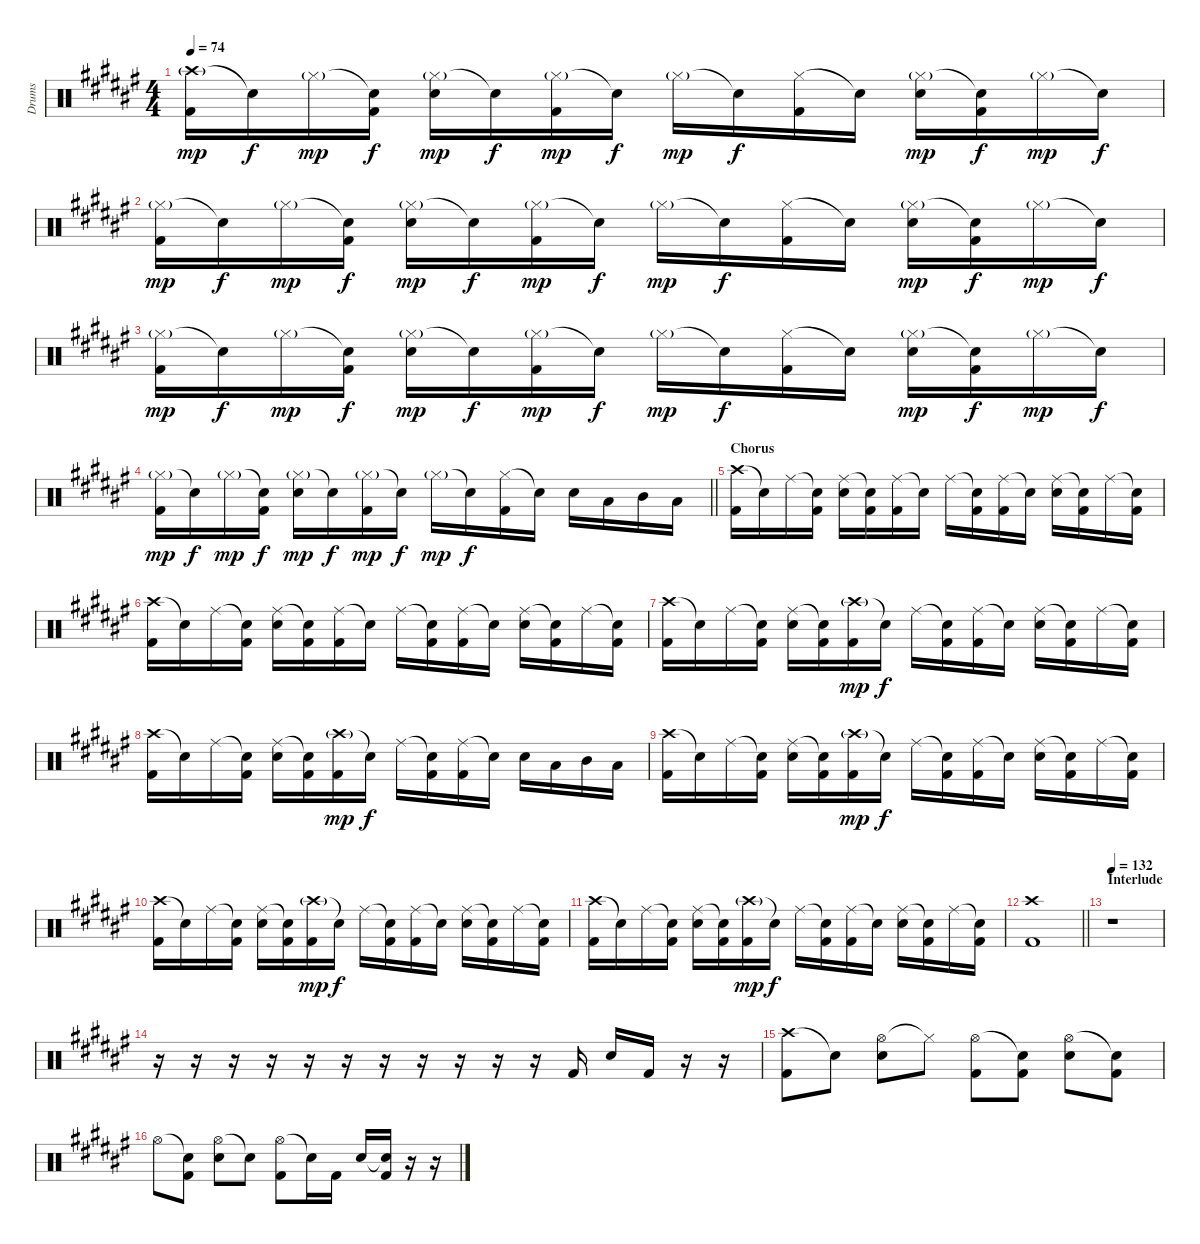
\track ("Drums" "Drums") {instrument percussion}
\staff {score}
\articulation defaults
\ts (4 4)
\tempo 74
\clef neutral
\ks f#
("Crash high (hit)"{g} "Kick (hit) 2").16{dy mp} "Snare (hit)"{t}.16{dy f} "Hi-Hat (closed)"{g}.16{dy mp} ("Snare (hit)"{t} "Kick (hit) 2").16{dy f} ("Hi-Hat (closed)"{g} "Electric Snare (hit)").16{dy mp} "Snare (hit)"{t}.16{dy f} ("Hi-Hat (closed)"{g} "Kick (hit) 2").16{dy mp} "Snare (hit)"{t}.16{dy f} "Hi-Hat (closed)"{g}.16{dy mp} "Snare (hit)"{t}.16{dy f} ("Hi-Hat (closed)" "Kick (hit) 2").16 "Snare (hit)"{t}.16 ("Hi-Hat (closed)"{g} "Electric Snare (hit)").16{dy mp} ("Snare (hit)"{t} "Kick (hit) 2").16{dy f} "Hi-Hat (closed)"{g}.16{dy mp} "Snare (hit)"{t}.16{dy f} |
("Hi-Hat (closed)"{g} "Kick (hit) 2").16{dy mp} "Snare (hit)"{t}.16{dy f} "Hi-Hat (closed)"{g}.16{dy mp} ("Snare (hit)"{t} "Kick (hit) 2").16{dy f} ("Hi-Hat (closed)"{g} "Electric Snare (hit)").16{dy mp} "Snare (hit)"{t}.16{dy f} ("Hi-Hat (closed)"{g} "Kick (hit) 2").16{dy mp} "Snare (hit)"{t}.16{dy f} "Hi-Hat (closed)"{g}.16{dy mp} "Snare (hit)"{t}.16{dy f} ("Hi-Hat (closed)" "Kick (hit) 2").16 "Snare (hit)"{t}.16 ("Hi-Hat (closed)"{g} "Electric Snare (hit)").16{dy mp} ("Snare (hit)"{t} "Kick (hit) 2").16{dy f} "Hi-Hat (closed)"{g}.16{dy mp} "Snare (hit)"{t}.16{dy f} |
("Hi-Hat (closed)"{g} "Kick (hit) 2").16{dy mp} "Snare (hit)"{t}.16{dy f} "Hi-Hat (closed)"{g}.16{dy mp} ("Snare (hit)"{t} "Kick (hit) 2").16{dy f} ("Hi-Hat (closed)"{g} "Electric Snare (hit)").16{dy mp} "Snare (hit)"{t}.16{dy f} ("Hi-Hat (closed)"{g} "Kick (hit) 2").16{dy mp} "Snare (hit)"{t}.16{dy f} "Hi-Hat (closed)"{g}.16{dy mp} "Snare (hit)"{t}.16{dy f} ("Hi-Hat (closed)" "Kick (hit) 2").16 "Snare (hit)"{t}.16 ("Hi-Hat (closed)"{g} "Electric Snare (hit)").16{dy mp} ("Snare (hit)"{t} "Kick (hit) 2").16{dy f} "Hi-Hat (closed)"{g}.16{dy mp} "Snare (hit)"{t}.16{dy f} |
\barLineRight lightlight
("Hi-Hat (closed)"{g} "Kick (hit) 2").16{dy mp} "Snare (hit)"{t}.16{dy f} "Hi-Hat (closed)"{g}.16{dy mp} ("Snare (hit)"{t} "Kick (hit) 2").16{dy f} ("Hi-Hat (closed)"{g} "Electric Snare (hit)").16{dy mp} "Snare (hit)"{t}.16{dy f} ("Hi-Hat (closed)"{g} "Kick (hit) 2").16{dy mp} "Snare (hit)"{t}.16{dy f} "Hi-Hat (closed)"{g}.16{dy mp} "Snare (hit)"{t}.16{dy f} ("Hi-Hat (closed)" "Kick (hit) 2").16 "Snare (hit)"{t}.16 "Electric Snare (hit)".16 "Low Tom (hit)".16 "Mid Tom (hit)".16 "Low Floor Tom (hit)".16 |
\section ("" "Chorus")
("Crash high (hit)" "Kick (hit) 2").16 "Snare (hit)"{t}.16 "Ride (middle)".16 ("Snare (hit)"{t} "Kick (hit) 2").16 ("Ride (middle)" "Electric Snare (hit)").16 ("Snare (hit)"{t} "Kick (hit) 2").16 ("Ride (middle)" "Kick (hit) 2").16 "Snare (hit)"{t}.16 "Ride (middle)".16 ("Snare (hit)"{t} "Kick (hit) 2").16 ("Ride (middle)" "Kick (hit) 2").16 "Snare (hit)"{t}.16 ("Ride (middle)" "Electric Snare (hit)").16 ("Snare (hit)"{t} "Kick (hit) 2").16 "Ride (middle)".16 ("Snare (hit)"{t} "Kick (hit) 2").16 |
("Crash high (hit)" "Kick (hit) 2").16 "Snare (hit)"{t}.16 "Ride (middle)".16 ("Snare (hit)"{t} "Kick (hit) 2").16 ("Ride (middle)" "Electric Snare (hit)").16 ("Snare (hit)"{t} "Kick (hit) 2").16 ("Ride (middle)" "Kick (hit) 2").16 "Snare (hit)"{t}.16 "Ride (middle)".16 ("Snare (hit)"{t} "Kick (hit) 2").16 ("Ride (middle)" "Kick (hit) 2").16 "Snare (hit)"{t}.16 ("Ride (middle)" "Electric Snare (hit)").16 ("Snare (hit)"{t} "Kick (hit) 2").16 "Ride (middle)".16 ("Snare (hit)"{t} "Kick (hit) 2").16 |
("Crash high (hit)" "Kick (hit) 2").16 "Snare (hit)"{t}.16 "Ride (middle)".16 ("Snare (hit)"{t} "Kick (hit) 2").16 ("Ride (middle)" "Electric Snare (hit)").16 ("Snare (hit)"{t} "Kick (hit) 2").16 ("Crash high (hit)"{g} "Kick (hit) 2").16{dy mp} "Snare (hit)"{t}.16{dy f} "Ride (middle)".16 ("Snare (hit)"{t} "Kick (hit) 2").16 ("Ride (middle)" "Kick (hit) 2").16 "Snare (hit)"{t}.16 ("Ride (middle)" "Electric Snare (hit)").16 ("Snare (hit)"{t} "Kick (hit) 2").16 "Ride (middle)".16 ("Snare (hit)"{t} "Kick (hit) 2").16 |
("Crash high (hit)" "Kick (hit) 2").16 "Snare (hit)"{t}.16 "Ride (middle)".16 ("Snare (hit)"{t} "Kick (hit) 2").16 ("Ride (middle)" "Electric Snare (hit)").16 ("Snare (hit)"{t} "Kick (hit) 2").16 ("Crash high (hit)"{g} "Kick (hit) 2").16{dy mp} "Snare (hit)"{t}.16{dy f} "Ride (middle)".16 ("Snare (hit)"{t} "Kick (hit) 2").16 ("Ride (middle)" "Kick (hit) 2").16 "Snare (hit)"{t}.16 "Electric Snare (hit)".16 "Low Tom (hit)".16 "Mid Tom (hit)".16 "Low Floor Tom (hit)".16 |
("Crash high (hit)" "Kick (hit) 2").16 "Snare (hit)"{t}.16 "Ride (middle)".16 ("Snare (hit)"{t} "Kick (hit) 2").16 ("Ride (middle)" "Electric Snare (hit)").16 ("Snare (hit)"{t} "Kick (hit) 2").16 ("Crash high (hit)"{g} "Kick (hit) 2").16{dy mp} "Snare (hit)"{t}.16{dy f} "Ride (middle)".16 ("Snare (hit)"{t} "Kick (hit) 2").16 ("Ride (middle)" "Kick (hit) 2").16 "Snare (hit)"{t}.16 ("Ride (middle)" "Electric Snare (hit)").16 ("Snare (hit)"{t} "Kick (hit) 2").16 "Ride (middle)".16 ("Snare (hit)"{t} "Kick (hit) 2").16 |
("Crash high (hit)" "Kick (hit) 2").16 "Snare (hit)"{t}.16 "Ride (middle)".16 ("Snare (hit)"{t} "Kick (hit) 2").16 ("Ride (middle)" "Electric Snare (hit)").16 ("Snare (hit)"{t} "Kick (hit) 2").16 ("Crash high (hit)"{g} "Kick (hit) 2").16{dy mp} "Snare (hit)"{t}.16{dy f} "Ride (middle)".16 ("Snare (hit)"{t} "Kick (hit) 2").16 ("Ride (middle)" "Kick (hit) 2").16 "Snare (hit)"{t}.16 ("Ride (middle)" "Electric Snare (hit)").16 ("Snare (hit)"{t} "Kick (hit) 2").16 "Ride (middle)".16 ("Snare (hit)"{t} "Kick (hit) 2").16 |
("Crash high (hit)" "Kick (hit) 2").16 "Snare (hit)"{t}.16 "Ride (middle)".16 ("Snare (hit)"{t} "Kick (hit) 2").16 ("Ride (middle)" "Electric Snare (hit)").16 ("Snare (hit)"{t} "Kick (hit) 2").16 ("Crash high (hit)"{g} "Kick (hit) 2").16{dy mp} "Snare (hit)"{t}.16{dy f} "Ride (middle)".16 ("Snare (hit)"{t} "Kick (hit) 2").16 ("Ride (middle)" "Kick (hit) 2").16 "Snare (hit)"{t}.16 ("Ride (middle)" "Electric Snare (hit)").16 ("Snare (hit)"{t} "Kick (hit) 2").16 "Ride (middle)".16 ("Snare (hit)"{t} "Kick (hit) 2").16 |
\barLineRight lightlight
("Crash high (hit)" "Kick (hit) 2").1 |
\section ("" "Interlude")
\tempo 132
r.1 |
r.16 r.16 r.16 r.16 r.16 r.16 r.16 r.16 r.16 r.16 r.16 "Kick (hit) 2".16 "Electric Snare (hit)".16 "Kick (hit) 2".16 r.16 r.16 |
("Crash high (hit)" "Kick (hit) 2").8 "Snare (hit)"{t}.8 ("Hi-Hat (open)" "Electric Snare (hit)").8 "Hi-Hat (closed)"{t}.8 ("Hi-Hat (open)" "Kick (hit) 2").8 ("Snare (hit)"{t} "Kick (hit) 2").8 ("Hi-Hat (open)" "Electric Snare (hit)").8 ("Snare (hit)"{t} "Kick (hit) 2").8 |
"Hi-Hat (open)".8 ("Snare (hit)"{t} "Kick (hit) 2").8 ("Hi-Hat (open)" "Electric Snare (hit)").8 "Snare (hit)"{t}.8 ("Hi-Hat (open)" "Kick (hit) 2").8 "Snare (hit)"{t}.16 "Kick (hit) 2".16 "Electric Snare (hit)".16 ("Snare (hit)"{t} "Kick (hit) 2").16 r.16 r.16
